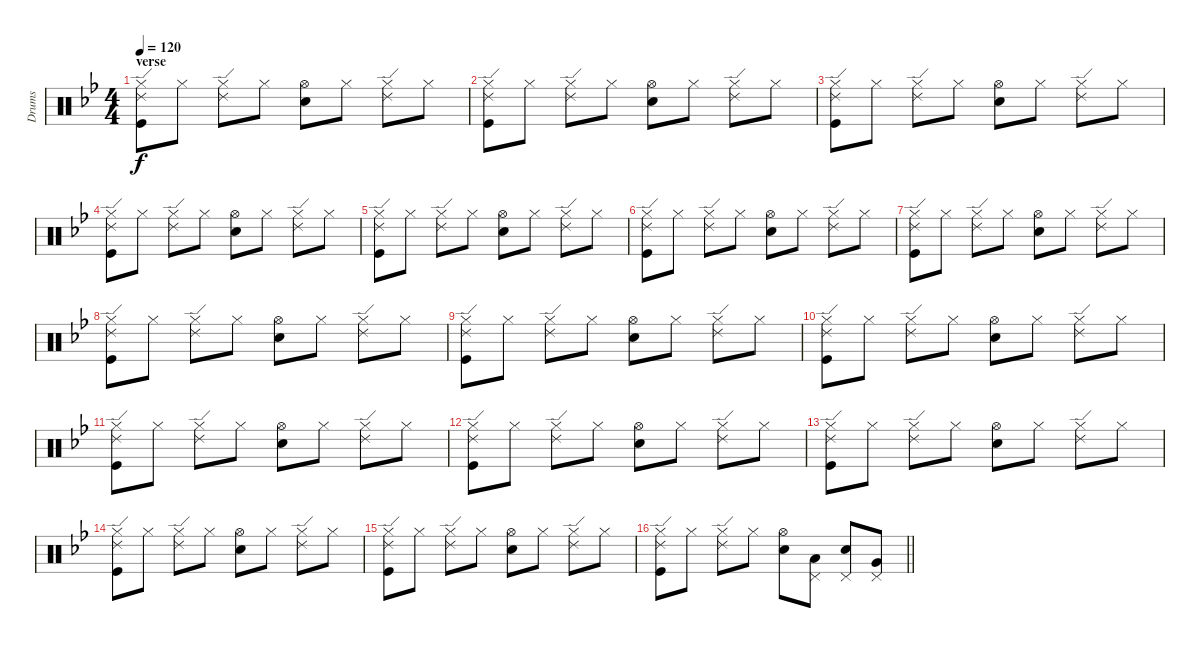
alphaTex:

\track ("Drums" "Drums") {instrument percussion}
\staff {score}
\articulation defaults
\ts (4 4)
\section ("" "verse ")
\tempo 120
\clef neutral
\ks gminor
("Hi-Hat (closed)" "Ride (edge) 2" "Kick (hit)").8{dy f} "Hi-Hat (closed)".8 ("Hi-Hat (closed)" "Ride (edge) 2").8 "Hi-Hat (closed)".8 ("Hi-Hat (open)" "Electric Snare (hit)").8 "Hi-Hat (closed)".8 ("Hi-Hat (closed)" "Ride (edge) 2").8 "Hi-Hat (closed)".8 |
("Hi-Hat (closed)" "Ride (edge) 2" "Kick (hit)").8 "Hi-Hat (closed)".8 ("Hi-Hat (closed)" "Ride (edge) 2").8 "Hi-Hat (closed)".8 ("Hi-Hat (open)" "Electric Snare (hit)").8 "Hi-Hat (closed)".8 ("Hi-Hat (closed)" "Ride (edge) 2").8 "Hi-Hat (closed)".8 |
("Hi-Hat (closed)" "Ride (edge) 2" "Kick (hit)").8 "Hi-Hat (closed)".8 ("Hi-Hat (closed)" "Ride (edge) 2").8 "Hi-Hat (closed)".8 ("Hi-Hat (open)" "Electric Snare (hit)").8 "Hi-Hat (closed)".8 ("Hi-Hat (closed)" "Ride (edge) 2").8 "Hi-Hat (closed)".8 |
("Hi-Hat (closed)" "Ride (edge) 2" "Kick (hit)").8 "Hi-Hat (closed)".8 ("Hi-Hat (closed)" "Ride (edge) 2").8 "Hi-Hat (closed)".8 ("Hi-Hat (open)" "Electric Snare (hit)").8 "Hi-Hat (closed)".8 ("Hi-Hat (closed)" "Ride (edge) 2").8 "Hi-Hat (closed)".8 |
("Hi-Hat (closed)" "Ride (edge) 2" "Kick (hit)").8 "Hi-Hat (closed)".8 ("Hi-Hat (closed)" "Ride (edge) 2").8 "Hi-Hat (closed)".8 ("Hi-Hat (open)" "Electric Snare (hit)").8 "Hi-Hat (closed)".8 ("Hi-Hat (closed)" "Ride (edge) 2").8 "Hi-Hat (closed)".8 |
("Hi-Hat (closed)" "Ride (edge) 2" "Kick (hit)").8 "Hi-Hat (closed)".8 ("Hi-Hat (closed)" "Ride (edge) 2").8 "Hi-Hat (closed)".8 ("Hi-Hat (open)" "Electric Snare (hit)").8 "Hi-Hat (closed)".8 ("Hi-Hat (closed)" "Ride (edge) 2").8 "Hi-Hat (closed)".8 |
("Hi-Hat (closed)" "Ride (edge) 2" "Kick (hit)").8 "Hi-Hat (closed)".8 ("Hi-Hat (closed)" "Ride (edge) 2").8 "Hi-Hat (closed)".8 ("Hi-Hat (open)" "Electric Snare (hit)").8 "Hi-Hat (closed)".8 ("Hi-Hat (closed)" "Ride (edge) 2").8 "Hi-Hat (closed)".8 |
("Hi-Hat (closed)" "Ride (edge) 2" "Kick (hit)").8 "Hi-Hat (closed)".8 ("Hi-Hat (closed)" "Ride (edge) 2").8 "Hi-Hat (closed)".8 ("Hi-Hat (open)" "Electric Snare (hit)").8 "Hi-Hat (closed)".8 ("Hi-Hat (closed)" "Ride (edge) 2").8 "Hi-Hat (closed)".8 |
("Hi-Hat (closed)" "Ride (edge) 2" "Kick (hit)").8 "Hi-Hat (closed)".8 ("Hi-Hat (closed)" "Ride (edge) 2").8 "Hi-Hat (closed)".8 ("Hi-Hat (open)" "Electric Snare (hit)").8 "Hi-Hat (closed)".8 ("Hi-Hat (closed)" "Ride (edge) 2").8 "Hi-Hat (closed)".8 |
("Hi-Hat (closed)" "Ride (edge) 2" "Kick (hit)").8 "Hi-Hat (closed)".8 ("Hi-Hat (closed)" "Ride (edge) 2").8 "Hi-Hat (closed)".8 ("Hi-Hat (open)" "Electric Snare (hit)").8 "Hi-Hat (closed)".8 ("Hi-Hat (closed)" "Ride (edge) 2").8 "Hi-Hat (closed)".8 |
("Hi-Hat (closed)" "Ride (edge) 2" "Kick (hit)").8 "Hi-Hat (closed)".8 ("Hi-Hat (closed)" "Ride (edge) 2").8 "Hi-Hat (closed)".8 ("Hi-Hat (open)" "Electric Snare (hit)").8 "Hi-Hat (closed)".8 ("Hi-Hat (closed)" "Ride (edge) 2").8 "Hi-Hat (closed)".8 |
("Hi-Hat (closed)" "Ride (edge) 2" "Kick (hit)").8 "Hi-Hat (closed)".8 ("Hi-Hat (closed)" "Ride (edge) 2").8 "Hi-Hat (closed)".8 ("Hi-Hat (open)" "Electric Snare (hit)").8 "Hi-Hat (closed)".8 ("Hi-Hat (closed)" "Ride (edge) 2").8 "Hi-Hat (closed)".8 |
("Hi-Hat (closed)" "Ride (edge) 2" "Kick (hit)").8 "Hi-Hat (closed)".8 ("Hi-Hat (closed)" "Ride (edge) 2").8 "Hi-Hat (closed)".8 ("Hi-Hat (open)" "Electric Snare (hit)").8 "Hi-Hat (closed)".8 ("Hi-Hat (closed)" "Ride (edge) 2").8 "Hi-Hat (closed)".8 |
("Hi-Hat (closed)" "Ride (edge) 2" "Kick (hit)").8 "Hi-Hat (closed)".8 ("Hi-Hat (closed)" "Ride (edge) 2").8 "Hi-Hat (closed)".8 ("Hi-Hat (open)" "Electric Snare (hit)").8 "Hi-Hat (closed)".8 ("Hi-Hat (closed)" "Ride (edge) 2").8 "Hi-Hat (closed)".8 |
("Hi-Hat (closed)" "Ride (edge) 2" "Kick (hit)").8 "Hi-Hat (closed)".8 ("Hi-Hat (closed)" "Ride (edge) 2").8 "Hi-Hat (closed)".8 ("Hi-Hat (open)" "Electric Snare (hit)").8 "Hi-Hat (closed)".8 ("Hi-Hat (closed)" "Ride (edge) 2").8 "Hi-Hat (closed)".8 |
\barLineRight lightlight
("Hi-Hat (closed)" "Ride (edge) 2" "Kick (hit)").8 "Hi-Hat (closed)".8 ("Hi-Hat (closed)" "Ride (edge) 2").8 "Hi-Hat (closed)".8 ("Hi-Hat (open)" "Electric Snare (hit)").8 ("Pedal Hi-Hat (hit)" "Low Tom (hit)").8 ("Pedal Hi-Hat (hit)" "Electric Snare (hit)").8 ("Pedal Hi-Hat (hit)" "Very Low Tom (hit)").8
